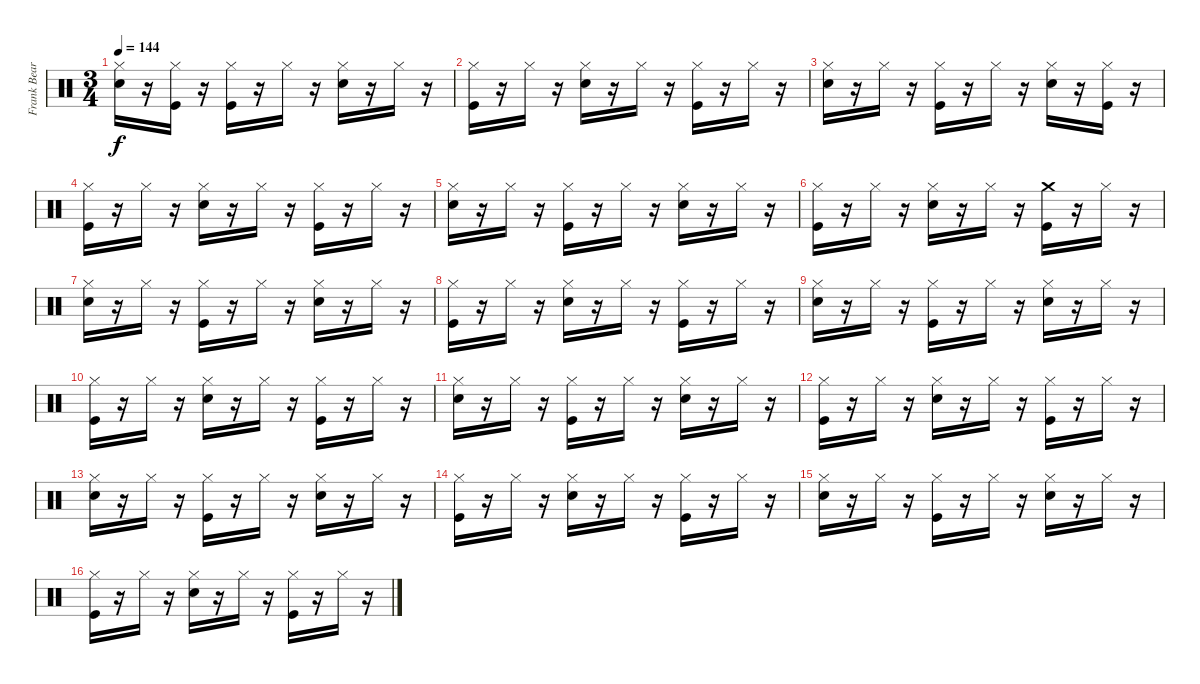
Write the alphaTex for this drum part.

\track ("Frank Beard" "Frank Bear") {instrument percussion}
\staff {score}
\articulation defaults
\ts (3 4)
\tempo 144
\clef neutral
\ks c
("Hi-Hat (closed)" "Electric Snare (hit)").16{dy f} r.16 ("Hi-Hat (closed)" "Kick (hit)").16 r.16 ("Hi-Hat (closed)" "Kick (hit)").16 r.16 "Hi-Hat (closed)".16 r.16 ("Hi-Hat (closed)" "Electric Snare (hit)").16 r.16 "Hi-Hat (closed)".16 r.16 |
("Hi-Hat (closed)" "Kick (hit)").16 r.16 "Hi-Hat (closed)".16 r.16 ("Hi-Hat (closed)" "Electric Snare (hit)").16 r.16 "Hi-Hat (closed)".16 r.16 ("Hi-Hat (closed)" "Kick (hit)").16 r.16 "Hi-Hat (closed)".16 r.16 |
("Hi-Hat (closed)" "Electric Snare (hit)").16 r.16 "Hi-Hat (closed)".16 r.16 ("Hi-Hat (closed)" "Kick (hit)").16 r.16 "Hi-Hat (closed)".16 r.16 ("Hi-Hat (closed)" "Electric Snare (hit)").16 r.16 ("Hi-Hat (closed)" "Kick (hit)").16 r.16 |
("Hi-Hat (closed)" "Kick (hit)").16 r.16 "Hi-Hat (closed)".16 r.16 ("Hi-Hat (closed)" "Electric Snare (hit)").16 r.16 "Hi-Hat (closed)".16 r.16 ("Hi-Hat (closed)" "Kick (hit)").16 r.16 "Hi-Hat (closed)".16 r.16 |
("Hi-Hat (closed)" "Electric Snare (hit)").16 r.16 "Hi-Hat (closed)".16 r.16 ("Hi-Hat (closed)" "Kick (hit)").16 r.16 "Hi-Hat (closed)".16 r.16 ("Hi-Hat (closed)" "Electric Snare (hit)").16 r.16 "Hi-Hat (closed)".16 r.16 |
("Hi-Hat (closed)" "Kick (hit)").16 r.16 "Hi-Hat (closed)".16 r.16 ("Hi-Hat (closed)" "Electric Snare (hit)").16 r.16 "Hi-Hat (closed)".16 r.16 ("Crash medium (hit)" "Kick (hit)").16 r.16 "Hi-Hat (closed)".16 r.16 |
("Hi-Hat (closed)" "Electric Snare (hit)").16 r.16 "Hi-Hat (closed)".16 r.16 ("Hi-Hat (closed)" "Kick (hit)").16 r.16 "Hi-Hat (closed)".16 r.16 ("Hi-Hat (closed)" "Electric Snare (hit)").16 r.16 "Hi-Hat (closed)".16 r.16 |
("Hi-Hat (closed)" "Kick (hit)").16 r.16 "Hi-Hat (closed)".16 r.16 ("Hi-Hat (closed)" "Electric Snare (hit)").16 r.16 "Hi-Hat (closed)".16 r.16 ("Hi-Hat (closed)" "Kick (hit)").16 r.16 "Hi-Hat (closed)".16 r.16 |
("Hi-Hat (closed)" "Electric Snare (hit)").16 r.16 "Hi-Hat (closed)".16 r.16 ("Hi-Hat (closed)" "Kick (hit)").16 r.16 "Hi-Hat (closed)".16 r.16 ("Hi-Hat (closed)" "Electric Snare (hit)").16 r.16 "Hi-Hat (closed)".16 r.16 |
("Hi-Hat (closed)" "Kick (hit)").16 r.16 "Hi-Hat (closed)".16 r.16 ("Hi-Hat (closed)" "Electric Snare (hit)").16 r.16 "Hi-Hat (closed)".16 r.16 ("Hi-Hat (closed)" "Kick (hit)").16 r.16 "Hi-Hat (closed)".16 r.16 |
("Hi-Hat (closed)" "Electric Snare (hit)").16 r.16 "Hi-Hat (closed)".16 r.16 ("Hi-Hat (closed)" "Kick (hit)").16 r.16 "Hi-Hat (closed)".16 r.16 ("Hi-Hat (closed)" "Electric Snare (hit)").16 r.16 "Hi-Hat (closed)".16 r.16 |
("Hi-Hat (closed)" "Kick (hit)").16 r.16 "Hi-Hat (closed)".16 r.16 ("Hi-Hat (closed)" "Electric Snare (hit)").16 r.16 "Hi-Hat (closed)".16 r.16 ("Hi-Hat (closed)" "Kick (hit)").16 r.16 "Hi-Hat (closed)".16 r.16 |
("Hi-Hat (closed)" "Electric Snare (hit)").16 r.16 "Hi-Hat (closed)".16 r.16 ("Hi-Hat (closed)" "Kick (hit)").16 r.16 "Hi-Hat (closed)".16 r.16 ("Hi-Hat (closed)" "Electric Snare (hit)").16 r.16 "Hi-Hat (closed)".16 r.16 |
("Hi-Hat (closed)" "Kick (hit)").16 r.16 "Hi-Hat (closed)".16 r.16 ("Hi-Hat (closed)" "Electric Snare (hit)").16 r.16 "Hi-Hat (closed)".16 r.16 ("Hi-Hat (closed)" "Kick (hit)").16 r.16 "Hi-Hat (closed)".16 r.16 |
("Hi-Hat (closed)" "Electric Snare (hit)").16 r.16 "Hi-Hat (closed)".16 r.16 ("Hi-Hat (closed)" "Kick (hit)").16 r.16 "Hi-Hat (closed)".16 r.16 ("Hi-Hat (closed)" "Electric Snare (hit)").16 r.16 "Hi-Hat (closed)".16 r.16 |
("Hi-Hat (closed)" "Kick (hit)").16 r.16 "Hi-Hat (closed)".16 r.16 ("Hi-Hat (closed)" "Electric Snare (hit)").16 r.16 "Hi-Hat (closed)".16 r.16 ("Hi-Hat (closed)" "Kick (hit)").16 r.16 "Hi-Hat (closed)".16 r.16
